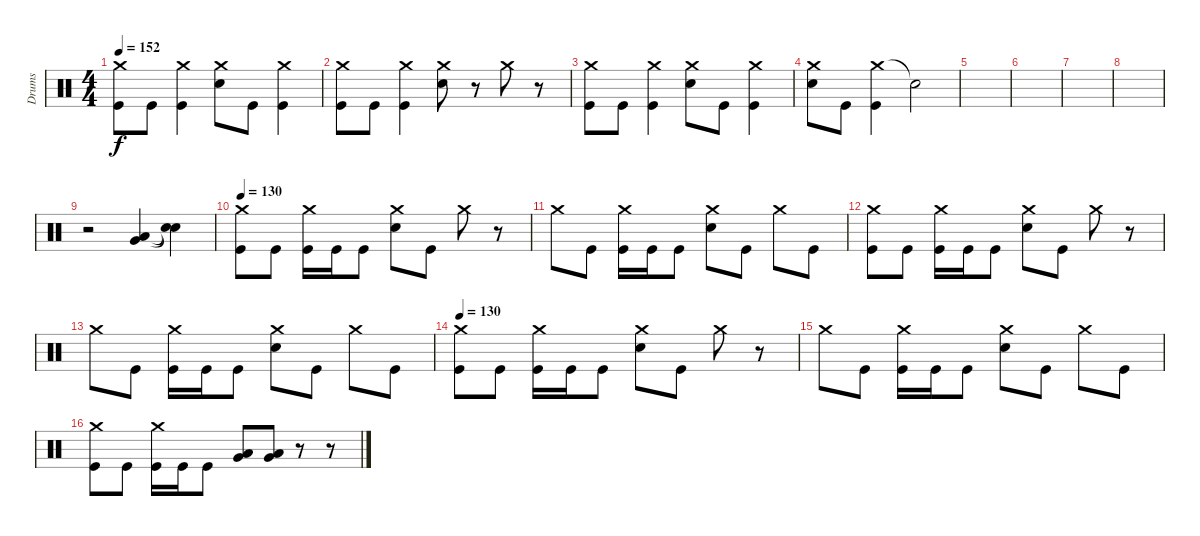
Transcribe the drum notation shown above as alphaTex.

\track ("Drums" "Drums") {instrument percussion}
\staff {score}
\articulation defaults
\ts (4 4)
\tempo 152
\clef neutral
\ks c
("Crash medium (hit)" "Kick (hit)").8{dy f} "Kick (hit)".8 ("Crash medium (hit)" "Kick (hit)").4 ("Crash medium (hit)" "Electric Snare (hit)").8 "Kick (hit)".8 ("Crash medium (hit)" "Kick (hit)").4 |
("Crash medium (hit)" "Kick (hit)").8 "Kick (hit)".8 ("Crash medium (hit)" "Kick (hit)").4 ("Crash medium (hit)" "Electric Snare (hit)").8 r.8 "Crash medium (hit)".8 r.8 |
("Crash medium (hit)" "Kick (hit)").8 "Kick (hit)".8 ("Crash medium (hit)" "Kick (hit)").4 ("Crash medium (hit)" "Electric Snare (hit)").8 "Kick (hit)".8 ("Crash medium (hit)" "Kick (hit)").4 |
("Crash medium (hit)" "Electric Snare (hit)").8 "Kick (hit)".8 ("Crash medium (hit)" "Kick (hit)").4 "Snare (hit)"{t}.2 |
|
|
|
|
r.2 ("Low Floor Tom (hit)" "Very Low Tom (hit)").4 ("Snare (hit)"{t} "Snare (hit)"{t}).4 |
\tempo 130
("Crash medium (hit)" "Kick (hit)").8 "Kick (hit)".8 ("Crash medium (hit)" "Kick (hit)").16 "Kick (hit)".16 "Kick (hit)".8 ("Crash medium (hit)" "Electric Snare (hit)").8 "Kick (hit)".8 "Crash medium (hit)".8 r.8 |
"Crash medium (hit)".8 "Kick (hit)".8 ("Crash medium (hit)" "Kick (hit)").16 "Kick (hit)".16 "Kick (hit)".8 ("Crash medium (hit)" "Electric Snare (hit)").8 "Kick (hit)".8 "Crash medium (hit)".8 "Kick (hit)".8 |
("Crash medium (hit)" "Kick (hit)").8 "Kick (hit)".8 ("Crash medium (hit)" "Kick (hit)").16 "Kick (hit)".16 "Kick (hit)".8 ("Crash medium (hit)" "Electric Snare (hit)").8 "Kick (hit)".8 "Crash medium (hit)".8 r.8 |
"Crash medium (hit)".8 "Kick (hit)".8 ("Crash medium (hit)" "Kick (hit)").16 "Kick (hit)".16 "Kick (hit)".8 ("Crash medium (hit)" "Electric Snare (hit)").8 "Kick (hit)".8 "Crash medium (hit)".8 "Kick (hit)".8 |
\tempo 130
("Crash medium (hit)" "Kick (hit)").8 "Kick (hit)".8 ("Crash medium (hit)" "Kick (hit)").16 "Kick (hit)".16 "Kick (hit)".8 ("Crash medium (hit)" "Electric Snare (hit)").8 "Kick (hit)".8 "Crash medium (hit)".8 r.8 |
"Crash medium (hit)".8 "Kick (hit)".8 ("Crash medium (hit)" "Kick (hit)").16 "Kick (hit)".16 "Kick (hit)".8 ("Crash medium (hit)" "Electric Snare (hit)").8 "Kick (hit)".8 "Crash medium (hit)".8 "Kick (hit)".8 |
("Crash medium (hit)" "Kick (hit)").8 "Kick (hit)".8 ("Crash medium (hit)" "Kick (hit)").16 "Kick (hit)".16 "Kick (hit)".8 ("Low Tom (hit)" "Very Low Tom (hit)").8 ("Low Tom (hit)" "Very Low Tom (hit)").8 r.8 r.8
